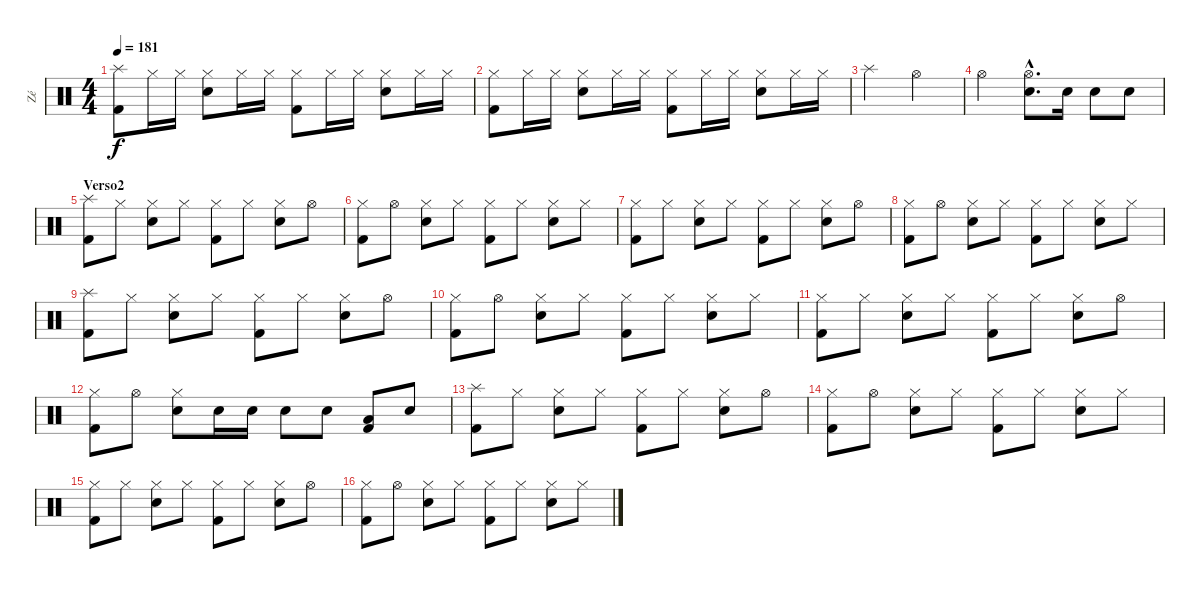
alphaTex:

\track ("Zé" "Zé") {instrument percussion}
\staff {score}
\articulation defaults
\ts (4 4)
\tempo 181
\clef neutral
\ks c
("Splash (hit)" "Kick (hit) 2").8{dy f} "Hi-Hat (closed)".16 "Hi-Hat (closed)".16 ("Hi-Hat (closed)" "Snare (hit) 2").8 "Hi-Hat (closed)".16 "Hi-Hat (closed)".16 ("Hi-Hat (closed)" "Kick (hit) 2").8 "Hi-Hat (closed)".16 "Hi-Hat (closed)".16 ("Hi-Hat (closed)" "Snare (hit) 2").8 "Hi-Hat (closed)".16 "Hi-Hat (closed)".16 |
("Hi-Hat (closed)" "Kick (hit) 2").8 "Hi-Hat (closed)".16 "Hi-Hat (closed)".16 ("Hi-Hat (closed)" "Snare (hit) 2").8 "Hi-Hat (closed)".16 "Hi-Hat (closed)".16 ("Hi-Hat (closed)" "Kick (hit) 2").8 "Hi-Hat (closed)".16 "Hi-Hat (closed)".16 ("Hi-Hat (closed)" "Snare (hit) 2").8 "Hi-Hat (closed)".16 "Hi-Hat (closed)".16 |
"Splash (hit)".2 "Hi-Hat (open)".2 |
"Hi-Hat (open)".2 ("Hi-Hat (open)"{hac} "Snare (hit) 2"{hac}).8{d} "Snare (hit) 2".16 "Snare (hit) 2".8 "Snare (hit) 2".8 |
\section ("" "Verso2")
("Splash (hit)" "Kick (hit) 2").8 "Hi-Hat (closed)".8 ("Hi-Hat (closed)" "Snare (hit) 2").8 "Hi-Hat (closed)".8 ("Hi-Hat (closed)" "Kick (hit) 2").8 "Hi-Hat (closed)".8 ("Hi-Hat (closed)" "Snare (hit) 2").8 "Hi-Hat (open)".8 |
("Hi-Hat (closed)" "Kick (hit) 2").8 "Hi-Hat (open)".8 ("Hi-Hat (closed)" "Snare (hit) 2").8 "Hi-Hat (closed)".8 ("Hi-Hat (closed)" "Kick (hit) 2").8 "Hi-Hat (closed)".8 ("Hi-Hat (closed)" "Snare (hit) 2").8 "Hi-Hat (closed)".8 |
("Hi-Hat (closed)" "Kick (hit) 2").8 "Hi-Hat (closed)".8 ("Hi-Hat (closed)" "Snare (hit) 2").8 "Hi-Hat (closed)".8 ("Hi-Hat (closed)" "Kick (hit) 2").8 "Hi-Hat (closed)".8 ("Hi-Hat (closed)" "Snare (hit) 2").8 "Hi-Hat (open)".8 |
("Hi-Hat (closed)" "Kick (hit) 2").8 "Hi-Hat (open)".8 ("Hi-Hat (closed)" "Snare (hit) 2").8 "Hi-Hat (closed)".8 ("Hi-Hat (closed)" "Kick (hit) 2").8 "Hi-Hat (closed)".8 ("Hi-Hat (closed)" "Snare (hit) 2").8 "Hi-Hat (closed)".8 |
("Splash (hit)" "Kick (hit) 2").8 "Hi-Hat (closed)".8 ("Hi-Hat (closed)" "Snare (hit) 2").8 "Hi-Hat (closed)".8 ("Hi-Hat (closed)" "Kick (hit) 2").8 "Hi-Hat (closed)".8 ("Hi-Hat (closed)" "Snare (hit) 2").8 "Hi-Hat (open)".8 |
("Hi-Hat (closed)" "Kick (hit) 2").8 "Hi-Hat (open)".8 ("Hi-Hat (closed)" "Snare (hit) 2").8 "Hi-Hat (closed)".8 ("Hi-Hat (closed)" "Kick (hit) 2").8 "Hi-Hat (closed)".8 ("Hi-Hat (closed)" "Snare (hit) 2").8 "Hi-Hat (closed)".8 |
("Hi-Hat (closed)" "Kick (hit) 2").8 "Hi-Hat (closed)".8 ("Hi-Hat (closed)" "Snare (hit) 2").8 "Hi-Hat (closed)".8 ("Hi-Hat (closed)" "Kick (hit) 2").8 "Hi-Hat (closed)".8 ("Hi-Hat (closed)" "Snare (hit) 2").8 "Hi-Hat (open)".8 |
("Hi-Hat (closed)" "Kick (hit) 2").8 "Hi-Hat (open)".8 ("Hi-Hat (closed)" "Snare (hit) 2").8 "Snare (hit) 2".16 "Snare (hit) 2".16 "Snare (hit) 2".8 "Snare (hit) 2".8 ("Low Tom (hit)" "Kick (hit) 2").8 "Snare (hit) 2".8 |
("Splash (hit)" "Kick (hit) 2").8 "Hi-Hat (closed)".8 ("Hi-Hat (closed)" "Snare (hit) 2").8 "Hi-Hat (closed)".8 ("Hi-Hat (closed)" "Kick (hit) 2").8 "Hi-Hat (closed)".8 ("Hi-Hat (closed)" "Snare (hit) 2").8 "Hi-Hat (open)".8 |
("Hi-Hat (closed)" "Kick (hit) 2").8 "Hi-Hat (open)".8 ("Hi-Hat (closed)" "Snare (hit) 2").8 "Hi-Hat (closed)".8 ("Hi-Hat (closed)" "Kick (hit) 2").8 "Hi-Hat (closed)".8 ("Hi-Hat (closed)" "Snare (hit) 2").8 "Hi-Hat (closed)".8 |
("Hi-Hat (closed)" "Kick (hit) 2").8 "Hi-Hat (closed)".8 ("Hi-Hat (closed)" "Snare (hit) 2").8 "Hi-Hat (closed)".8 ("Hi-Hat (closed)" "Kick (hit) 2").8 "Hi-Hat (closed)".8 ("Hi-Hat (closed)" "Snare (hit) 2").8 "Hi-Hat (open)".8 |
("Hi-Hat (closed)" "Kick (hit) 2").8 "Hi-Hat (open)".8 ("Hi-Hat (closed)" "Snare (hit) 2").8 "Hi-Hat (closed)".8 ("Hi-Hat (closed)" "Kick (hit) 2").8 "Hi-Hat (closed)".8 ("Hi-Hat (closed)" "Snare (hit) 2").8 "Hi-Hat (closed)".8
